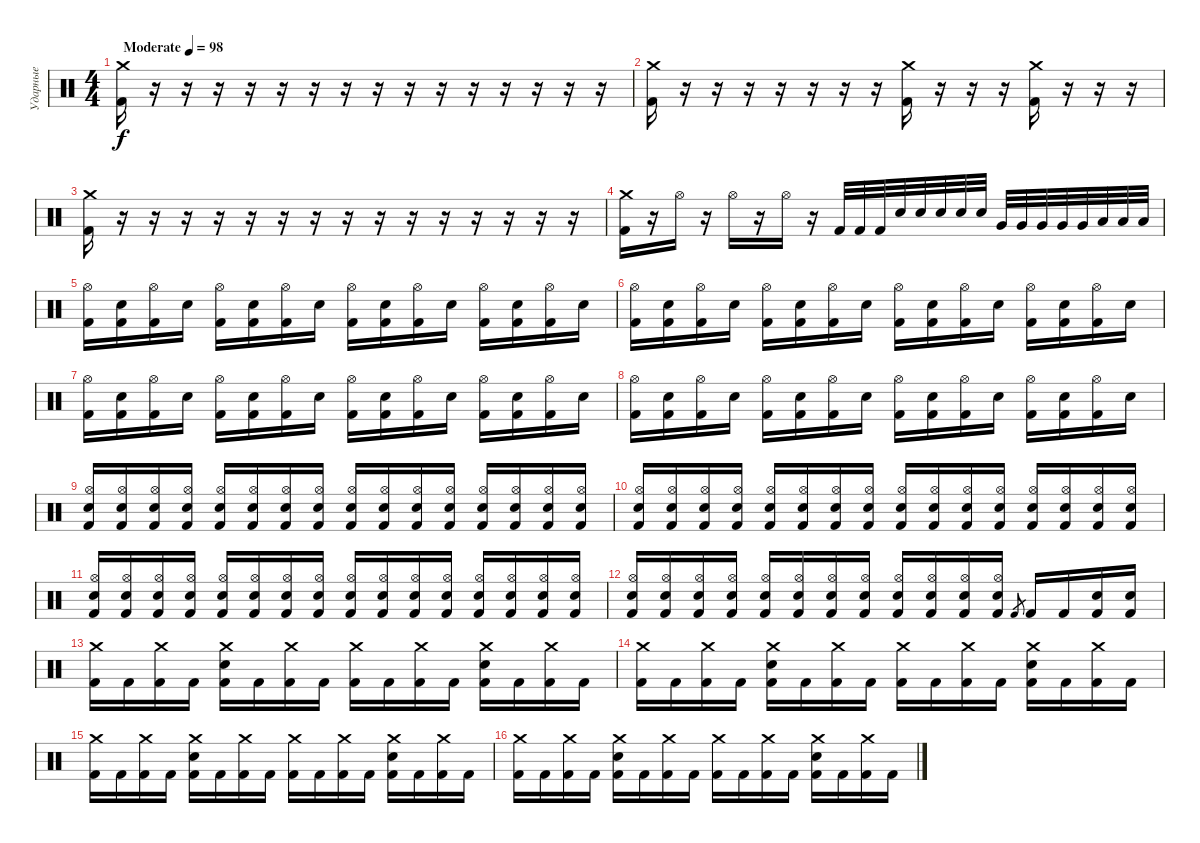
\track ("Ударные" "Ударные") {instrument percussion}
\staff {score}
\articulation defaults
\ts (4 4)
\tempo (98 "Moderate")
\clef neutral
\ks c
("Crash medium (hit)" "Kick (hit) 2").16{dy f} r.16 r.16 r.16 r.16 r.16 r.16 r.16 r.16 r.16 r.16 r.16 r.16 r.16 r.16 r.16 |
("Crash medium (hit)" "Kick (hit) 2").16 r.16 r.16 r.16 r.16 r.16 r.16 r.16 ("Crash medium (hit)" "Kick (hit) 2").16 r.16 r.16 r.16 ("Crash medium (hit)" "Kick (hit) 2").16 r.16 r.16 r.16 |
("Crash medium (hit)" "Kick (hit) 2").16 r.16 r.16 r.16 r.16 r.16 r.16 r.16 r.16 r.16 r.16 r.16 r.16 r.16 r.16 r.16 |
("Crash medium (hit)" "Kick (hit) 2").16 r.16 "Hi-Hat (open)".16 r.16 "Hi-Hat (open)".16 r.16 "Hi-Hat (open)".16 r.16 "Kick (hit) 2".32 "Kick (hit) 2".32 "Kick (hit) 2".32 "Electric Snare (hit)".32 "Electric Snare (hit)".32 "Electric Snare (hit)".32 "Electric Snare (hit)".32 "Electric Snare (hit)".32 "Very Low Tom (hit)".32 "Very Low Tom (hit)".32 "Very Low Tom (hit)".32 "Very Low Tom (hit)".32 "Very Low Tom (hit)".32 "Low Tom (hit)".32 "Low Tom (hit)".32 "Low Tom (hit)".32 |
("Hi-Hat (open)" "Kick (hit) 2").16 ("Electric Snare (hit)" "Kick (hit) 2").16 ("Hi-Hat (open)" "Kick (hit) 2").16 "Electric Snare (hit)".16 ("Hi-Hat (open)" "Kick (hit) 2").16 ("Electric Snare (hit)" "Kick (hit) 2").16 ("Hi-Hat (open)" "Kick (hit) 2").16 "Electric Snare (hit)".16 ("Hi-Hat (open)" "Kick (hit) 2").16 ("Electric Snare (hit)" "Kick (hit) 2").16 ("Hi-Hat (open)" "Kick (hit) 2").16 "Electric Snare (hit)".16 ("Hi-Hat (open)" "Kick (hit) 2").16 ("Electric Snare (hit)" "Kick (hit) 2").16 ("Hi-Hat (open)" "Kick (hit) 2").16 "Electric Snare (hit)".16 |
("Hi-Hat (open)" "Kick (hit) 2").16 ("Electric Snare (hit)" "Kick (hit) 2").16 ("Hi-Hat (open)" "Kick (hit) 2").16 "Electric Snare (hit)".16 ("Hi-Hat (open)" "Kick (hit) 2").16 ("Electric Snare (hit)" "Kick (hit) 2").16 ("Hi-Hat (open)" "Kick (hit) 2").16 "Electric Snare (hit)".16 ("Hi-Hat (open)" "Kick (hit) 2").16 ("Electric Snare (hit)" "Kick (hit) 2").16 ("Hi-Hat (open)" "Kick (hit) 2").16 "Electric Snare (hit)".16 ("Hi-Hat (open)" "Kick (hit) 2").16 ("Electric Snare (hit)" "Kick (hit) 2").16 ("Hi-Hat (open)" "Kick (hit) 2").16 "Electric Snare (hit)".16 |
("Hi-Hat (open)" "Kick (hit) 2").16 ("Electric Snare (hit)" "Kick (hit) 2").16 ("Hi-Hat (open)" "Kick (hit) 2").16 "Electric Snare (hit)".16 ("Hi-Hat (open)" "Kick (hit) 2").16 ("Electric Snare (hit)" "Kick (hit) 2").16 ("Hi-Hat (open)" "Kick (hit) 2").16 "Electric Snare (hit)".16 ("Hi-Hat (open)" "Kick (hit) 2").16 ("Electric Snare (hit)" "Kick (hit) 2").16 ("Hi-Hat (open)" "Kick (hit) 2").16 "Electric Snare (hit)".16 ("Hi-Hat (open)" "Kick (hit) 2").16 ("Electric Snare (hit)" "Kick (hit) 2").16 ("Hi-Hat (open)" "Kick (hit) 2").16 "Electric Snare (hit)".16 |
("Hi-Hat (open)" "Kick (hit) 2").16 ("Electric Snare (hit)" "Kick (hit) 2").16 ("Hi-Hat (open)" "Kick (hit) 2").16 "Electric Snare (hit)".16 ("Hi-Hat (open)" "Kick (hit) 2").16 ("Electric Snare (hit)" "Kick (hit) 2").16 ("Hi-Hat (open)" "Kick (hit) 2").16 "Electric Snare (hit)".16 ("Hi-Hat (open)" "Kick (hit) 2").16 ("Electric Snare (hit)" "Kick (hit) 2").16 ("Hi-Hat (open)" "Kick (hit) 2").16 "Electric Snare (hit)".16 ("Hi-Hat (open)" "Kick (hit) 2").16 ("Electric Snare (hit)" "Kick (hit) 2").16 ("Hi-Hat (open)" "Kick (hit) 2").16 "Electric Snare (hit)".16 |
("Hi-Hat (open)" "Electric Snare (hit)" "Kick (hit) 2").16 ("Hi-Hat (open)" "Electric Snare (hit)" "Kick (hit) 2").16 ("Hi-Hat (open)" "Electric Snare (hit)" "Kick (hit) 2").16 ("Hi-Hat (open)" "Electric Snare (hit)" "Kick (hit) 2").16 ("Hi-Hat (open)" "Electric Snare (hit)" "Kick (hit) 2").16 ("Hi-Hat (open)" "Electric Snare (hit)" "Kick (hit) 2").16 ("Hi-Hat (open)" "Electric Snare (hit)" "Kick (hit) 2").16 ("Hi-Hat (open)" "Electric Snare (hit)" "Kick (hit) 2").16 ("Hi-Hat (open)" "Electric Snare (hit)" "Kick (hit) 2").16 ("Hi-Hat (open)" "Electric Snare (hit)" "Kick (hit) 2").16 ("Hi-Hat (open)" "Electric Snare (hit)" "Kick (hit) 2").16 ("Hi-Hat (open)" "Electric Snare (hit)" "Kick (hit) 2").16 ("Hi-Hat (open)" "Electric Snare (hit)" "Kick (hit) 2").16 ("Hi-Hat (open)" "Electric Snare (hit)" "Kick (hit) 2").16 ("Hi-Hat (open)" "Electric Snare (hit)" "Kick (hit) 2").16 ("Hi-Hat (open)" "Electric Snare (hit)" "Kick (hit) 2").16 |
("Hi-Hat (open)" "Electric Snare (hit)" "Kick (hit) 2").16 ("Hi-Hat (open)" "Electric Snare (hit)" "Kick (hit) 2").16 ("Hi-Hat (open)" "Electric Snare (hit)" "Kick (hit) 2").16 ("Hi-Hat (open)" "Electric Snare (hit)" "Kick (hit) 2").16 ("Hi-Hat (open)" "Electric Snare (hit)" "Kick (hit) 2").16 ("Hi-Hat (open)" "Electric Snare (hit)" "Kick (hit) 2").16 ("Hi-Hat (open)" "Electric Snare (hit)" "Kick (hit) 2").16 ("Hi-Hat (open)" "Electric Snare (hit)" "Kick (hit) 2").16 ("Hi-Hat (open)" "Electric Snare (hit)" "Kick (hit) 2").16 ("Hi-Hat (open)" "Electric Snare (hit)" "Kick (hit) 2").16 ("Hi-Hat (open)" "Electric Snare (hit)" "Kick (hit) 2").16 ("Hi-Hat (open)" "Electric Snare (hit)" "Kick (hit) 2").16 ("Hi-Hat (open)" "Electric Snare (hit)" "Kick (hit) 2").16 ("Hi-Hat (open)" "Electric Snare (hit)" "Kick (hit) 2").16 ("Hi-Hat (open)" "Electric Snare (hit)" "Kick (hit) 2").16 ("Hi-Hat (open)" "Electric Snare (hit)" "Kick (hit) 2").16 |
("Hi-Hat (open)" "Electric Snare (hit)" "Kick (hit) 2").16 ("Hi-Hat (open)" "Electric Snare (hit)" "Kick (hit) 2").16 ("Hi-Hat (open)" "Electric Snare (hit)" "Kick (hit) 2").16 ("Hi-Hat (open)" "Electric Snare (hit)" "Kick (hit) 2").16 ("Hi-Hat (open)" "Electric Snare (hit)" "Kick (hit) 2").16 ("Hi-Hat (open)" "Electric Snare (hit)" "Kick (hit) 2").16 ("Hi-Hat (open)" "Electric Snare (hit)" "Kick (hit) 2").16 ("Hi-Hat (open)" "Electric Snare (hit)" "Kick (hit) 2").16 ("Hi-Hat (open)" "Electric Snare (hit)" "Kick (hit) 2").16 ("Hi-Hat (open)" "Electric Snare (hit)" "Kick (hit) 2").16 ("Hi-Hat (open)" "Electric Snare (hit)" "Kick (hit) 2").16 ("Hi-Hat (open)" "Electric Snare (hit)" "Kick (hit) 2").16 ("Hi-Hat (open)" "Electric Snare (hit)" "Kick (hit) 2").16 ("Hi-Hat (open)" "Electric Snare (hit)" "Kick (hit) 2").16 ("Hi-Hat (open)" "Electric Snare (hit)" "Kick (hit) 2").16 ("Hi-Hat (open)" "Electric Snare (hit)" "Kick (hit) 2").16 |
("Hi-Hat (open)" "Electric Snare (hit)" "Kick (hit) 2").16 ("Hi-Hat (open)" "Electric Snare (hit)" "Kick (hit) 2").16 ("Hi-Hat (open)" "Electric Snare (hit)" "Kick (hit) 2").16 ("Hi-Hat (open)" "Electric Snare (hit)" "Kick (hit) 2").16 ("Hi-Hat (open)" "Electric Snare (hit)" "Kick (hit) 2").16 ("Hi-Hat (open)" "Electric Snare (hit)" "Kick (hit) 2").16 ("Hi-Hat (open)" "Electric Snare (hit)" "Kick (hit) 2").16 ("Hi-Hat (open)" "Electric Snare (hit)" "Kick (hit) 2").16 ("Hi-Hat (open)" "Electric Snare (hit)" "Kick (hit) 2").16 ("Hi-Hat (open)" "Electric Snare (hit)" "Kick (hit) 2").16 ("Hi-Hat (open)" "Electric Snare (hit)" "Kick (hit) 2").16 ("Hi-Hat (open)" "Electric Snare (hit)" "Kick (hit) 2").16 "Kick (hit) 2".8{gr} "Kick (hit) 2".16 "Kick (hit) 2".16 ("Electric Snare (hit)" "Kick (hit) 2").16 ("Electric Snare (hit)" "Kick (hit) 2").16 |
("Crash medium (hit)" "Kick (hit) 2").16 "Kick (hit) 2".16 ("Crash medium (hit)" "Kick (hit) 2").16 "Kick (hit) 2".16 ("Crash medium (hit)" "Electric Snare (hit)" "Kick (hit) 2").16 "Kick (hit) 2".16 ("Crash medium (hit)" "Kick (hit) 2").16 "Kick (hit) 2".16 ("Crash medium (hit)" "Kick (hit) 2").16 "Kick (hit) 2".16 ("Crash medium (hit)" "Kick (hit) 2").16 "Kick (hit) 2".16 ("Crash medium (hit)" "Electric Snare (hit)" "Kick (hit) 2").16 "Kick (hit) 2".16 ("Crash medium (hit)" "Kick (hit) 2").16 "Kick (hit) 2".16 |
("Crash medium (hit)" "Kick (hit) 2").16 "Kick (hit) 2".16 ("Crash medium (hit)" "Kick (hit) 2").16 "Kick (hit) 2".16 ("Crash medium (hit)" "Electric Snare (hit)" "Kick (hit) 2").16 "Kick (hit) 2".16 ("Crash medium (hit)" "Kick (hit) 2").16 "Kick (hit) 2".16 ("Crash medium (hit)" "Kick (hit) 2").16 "Kick (hit) 2".16 ("Crash medium (hit)" "Kick (hit) 2").16 "Kick (hit) 2".16 ("Crash medium (hit)" "Electric Snare (hit)" "Kick (hit) 2").16 "Kick (hit) 2".16 ("Crash medium (hit)" "Kick (hit) 2").16 "Kick (hit) 2".16 |
("Crash medium (hit)" "Kick (hit) 2").16 "Kick (hit) 2".16 ("Crash medium (hit)" "Kick (hit) 2").16 "Kick (hit) 2".16 ("Crash medium (hit)" "Electric Snare (hit)" "Kick (hit) 2").16 "Kick (hit) 2".16 ("Crash medium (hit)" "Kick (hit) 2").16 "Kick (hit) 2".16 ("Crash medium (hit)" "Kick (hit) 2").16 "Kick (hit) 2".16 ("Crash medium (hit)" "Kick (hit) 2").16 "Kick (hit) 2".16 ("Crash medium (hit)" "Electric Snare (hit)" "Kick (hit) 2").16 "Kick (hit) 2".16 ("Crash medium (hit)" "Kick (hit) 2").16 "Kick (hit) 2".16 |
("Crash medium (hit)" "Kick (hit) 2").16 "Kick (hit) 2".16 ("Crash medium (hit)" "Kick (hit) 2").16 "Kick (hit) 2".16 ("Crash medium (hit)" "Electric Snare (hit)" "Kick (hit) 2").16 "Kick (hit) 2".16 ("Crash medium (hit)" "Kick (hit) 2").16 "Kick (hit) 2".16 ("Crash medium (hit)" "Kick (hit) 2").16 "Kick (hit) 2".16 ("Crash medium (hit)" "Kick (hit) 2").16 "Kick (hit) 2".16 ("Crash medium (hit)" "Electric Snare (hit)" "Kick (hit) 2").16 "Kick (hit) 2".16 ("Crash medium (hit)" "Kick (hit) 2").16 "Kick (hit) 2".16
